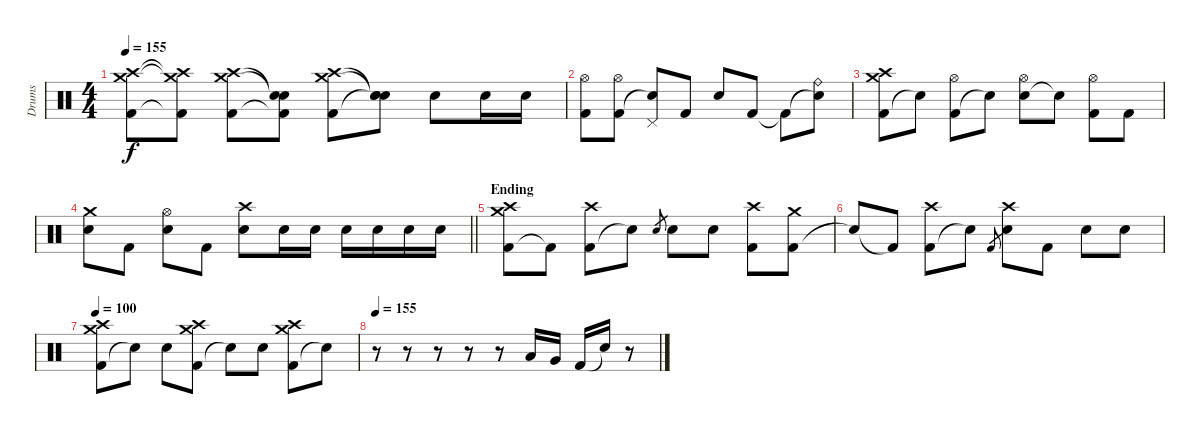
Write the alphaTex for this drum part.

\track ("Drums" "Drums") {instrument percussion}
\staff {score}
\articulation defaults
\ts (4 4)
\tempo 155
\clef neutral
\ks c
("Kick (hit) 2" "Crash high (hit)" "Crash medium (hit)").8{dy f} ("Kick (hit) 2"{t} "Crash high (hit)"{t} "Crash medium (hit)"{t}).8 ("Kick (hit) 2" "Crash high (hit)" "Crash medium (hit)").8 ("Kick (hit) 2"{t} "Snare (hit)"{t} "Snare (hit)"{t}).8 ("Kick (hit) 2" "Crash high (hit)" "Crash medium (hit)").8 ("Snare (hit)"{t} "Snare (hit)"{t} "Snare (hit)"{t}).8 "Electric Snare (hit)".8 "Electric Snare (hit)".16 "Electric Snare (hit)".16 |
("Kick (hit) 2" "Hi-Hat (open)").8 ("Kick (hit) 2" "Hi-Hat (open)").8 ("Snare (hit)"{t} "Pedal Hi-Hat (hit)").8 "Kick (hit) 2".8 "Electric Snare (hit)".8 "Kick (hit) 2".8 "Kick (hit) 2"{t}.8 ("Snare (hit)"{t} "Ride (bell)").8 |
("Kick (hit) 2" "Crash medium (hit)" "Crash high (hit)").8 "Snare (hit)"{t}.8 ("Kick (hit) 2" "Hi-Hat (open)").8 "Snare (hit)"{t}.8 ("Electric Snare (hit)" "Hi-Hat (open)").8 "Snare (hit)"{t}.8 ("Kick (hit) 2" "Hi-Hat (open)").8 "Kick (hit) 2".8 |
\barLineRight lightlight
("Electric Snare (hit)" "Crash medium (hit)").8 "Kick (hit) 2".8 ("Electric Snare (hit)" "Hi-Hat (open)").8 "Kick (hit) 2".8 ("Electric Snare (hit)" "Crash high (hit)").8 "Electric Snare (hit)".16 "Electric Snare (hit)".16 "Electric Snare (hit)".16 "Electric Snare (hit)".16 "Electric Snare (hit)".16 "Electric Snare (hit)".16 |
\section ("" "Ending")
("Kick (hit) 2" "Crash high (hit)" "Crash medium (hit)").8 "Kick (hit) 2"{t}.8 ("Kick (hit) 2" "Crash high (hit)").8 "Electric Snare (hit)"{t}.8 "Electric Snare (hit)".8{gr} "Electric Snare (hit)".8 "Electric Snare (hit)".8 ("Kick (hit) 2" "Crash high (hit)").8 ("Kick (hit) 2" "Crash medium (hit)").8 |
"Snare (hit)"{t}.8 "Kick (hit) 2"{t}.8 ("Kick (hit) 2" "Crash high (hit)").8 "Snare (hit)"{t}.8 "Kick (hit) 2".8{gr} ("Electric Snare (hit)" "Crash high (hit)").8 "Kick (hit) 2".8 "Electric Snare (hit)".8 "Electric Snare (hit)".8 |
\tempo 100
("Kick (hit) 2" "Crash medium (hit)" "Crash high (hit)").8 "Snare (hit)"{t}.8 "Electric Snare (hit)".8 ("Kick (hit) 2" "Crash medium (hit)" "Crash high (hit)").8 "Snare (hit)"{t}.8 "Electric Snare (hit)".8 ("Kick (hit) 2" "Crash medium (hit)" "Crash high (hit)").8 "Snare (hit)"{t}.8 |
\tempo 155
r.8 r.8 r.8 r.8 r.8 "Low Tom (hit)".16 "Very Low Tom (hit)".16 "Kick (hit) 2".16 "Snare (hit)"{t}.16 r.8
